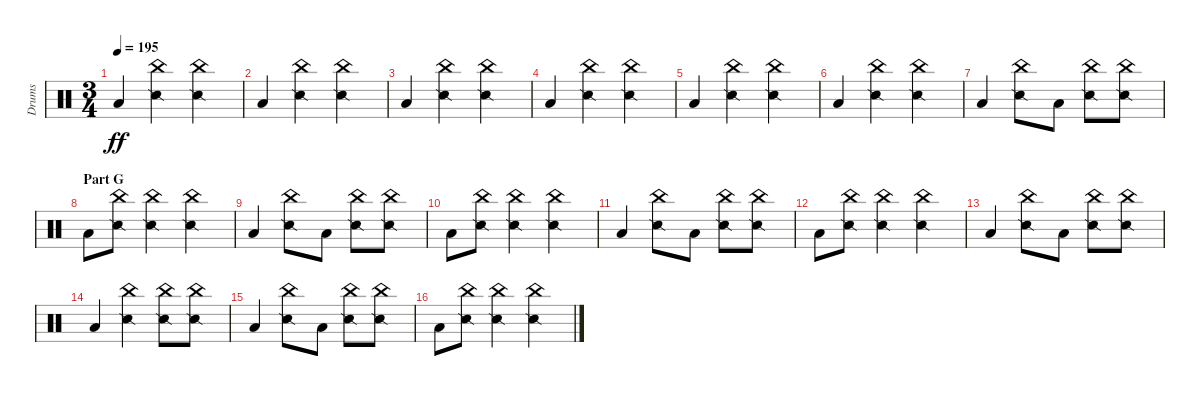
\track ("Drums" "Drums") {instrument percussion}
\staff {score}
\articulation defaults
\ts (3 4)
\tempo 195
\clef neutral
\ks c "Low Floor Tom (hit)".4{dy ff}
("China (hit)" "Snare (side stick) 2").4 ("China (hit)" "Snare (side stick) 2").4 |
"Low Floor Tom (hit)".4 ("China (hit)" "Snare (side stick) 2").4 ("China (hit)" "Snare (side stick) 2").4 |
"Low Floor Tom (hit)".4 ("China (hit)" "Snare (side stick) 2").4 ("China (hit)" "Snare (side stick) 2").4 |
"Low Floor Tom (hit)".4 ("China (hit)" "Snare (side stick) 2").4 ("China (hit)" "Snare (side stick) 2").4 |
"Low Floor Tom (hit)".4 ("China (hit)" "Snare (side stick) 2").4 ("China (hit)" "Snare (side stick) 2").4 |
"Low Floor Tom (hit)".4 ("China (hit)" "Snare (side stick) 2").4 ("China (hit)" "Snare (side stick) 2").4 |
"Low Floor Tom (hit)".4 ("China (hit)" "Snare (side stick) 2").8 "Low Floor Tom (hit)".8 ("China (hit)" "Snare (side stick) 2").8 ("China (hit)" "Snare (side stick) 2").8 |
\section ("" "Part G")
"Low Floor Tom (hit)".8 ("China (hit)" "Snare (side stick) 2").8 ("China (hit)" "Snare (side stick) 2").4 ("China (hit)" "Snare (side stick) 2").4 |
"Low Floor Tom (hit)".4 ("China (hit)" "Snare (side stick) 2").8 "Low Floor Tom (hit)".8 ("China (hit)" "Snare (side stick) 2").8 ("China (hit)" "Snare (side stick) 2").8 |
"Low Floor Tom (hit)".8 ("China (hit)" "Snare (side stick) 2").8 ("China (hit)" "Snare (side stick) 2").4 ("China (hit)" "Snare (side stick) 2").4 |
"Low Floor Tom (hit)".4 ("China (hit)" "Snare (side stick) 2").8 "Low Floor Tom (hit)".8 ("China (hit)" "Snare (side stick) 2").8 ("China (hit)" "Snare (side stick) 2").8 |
"Low Floor Tom (hit)".8 ("China (hit)" "Snare (side stick) 2").8 ("China (hit)" "Snare (side stick) 2").4 ("China (hit)" "Snare (side stick) 2").4 |
"Low Floor Tom (hit)".4 ("China (hit)" "Snare (side stick) 2").8 "Low Floor Tom (hit)".8 ("China (hit)" "Snare (side stick) 2").8 ("China (hit)" "Snare (side stick) 2").8 |
"Low Floor Tom (hit)".4 ("China (hit)" "Snare (side stick) 2").4 ("China (hit)" "Snare (side stick) 2").8 ("China (hit)" "Snare (side stick) 2").8 |
"Low Floor Tom (hit)".4 ("China (hit)" "Snare (side stick) 2").8 "Low Floor Tom (hit)".8 ("China (hit)" "Snare (side stick) 2").8 ("China (hit)" "Snare (side stick) 2").8 |
"Low Floor Tom (hit)".8 ("China (hit)" "Snare (side stick) 2").8 ("China (hit)" "Snare (side stick) 2").4 ("China (hit)" "Snare (side stick) 2").4
